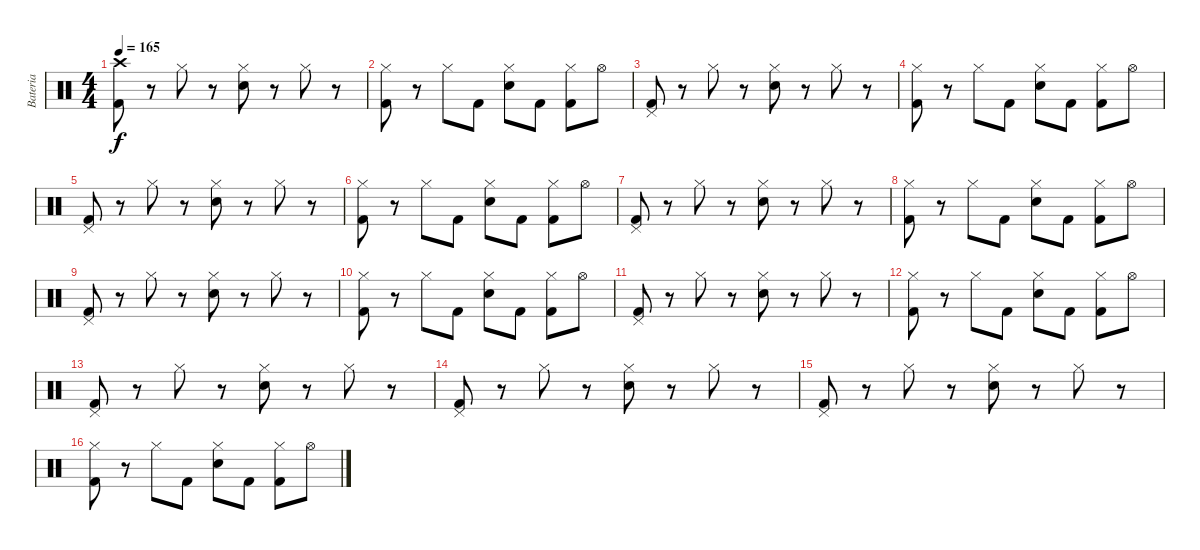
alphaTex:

\track ("Bateria" "Bateria") {instrument percussion}
\staff {score}
\articulation defaults
\ts (4 4)
\tempo 165
\clef neutral
\ks c
("Crash high (hit)" "Kick (hit) 2").8{dy f} r.8 "Hi-Hat (closed)".8 r.8 ("Hi-Hat (closed)" "Snare (hit) 2").8 r.8 "Hi-Hat (closed)".8 r.8 |
("Hi-Hat (closed)" "Kick (hit) 2").8 r.8 "Hi-Hat (closed)".8 "Kick (hit) 2".8 ("Hi-Hat (closed)" "Snare (hit) 2").8 "Kick (hit) 2".8 ("Hi-Hat (closed)" "Kick (hit) 2").8 "Hi-Hat (open)".8 |
("Pedal Hi-Hat (hit)" "Kick (hit) 2").8 r.8 "Hi-Hat (closed)".8 r.8 ("Hi-Hat (closed)" "Snare (hit) 2").8 r.8 "Hi-Hat (closed)".8 r.8 |
("Hi-Hat (closed)" "Kick (hit) 2").8 r.8 "Hi-Hat (closed)".8 "Kick (hit) 2".8 ("Hi-Hat (closed)" "Snare (hit) 2").8 "Kick (hit) 2".8 ("Hi-Hat (closed)" "Kick (hit) 2").8 "Hi-Hat (open)".8 |
("Pedal Hi-Hat (hit)" "Kick (hit) 2").8 r.8 "Hi-Hat (closed)".8 r.8 ("Hi-Hat (closed)" "Snare (hit) 2").8 r.8 "Hi-Hat (closed)".8 r.8 |
("Hi-Hat (closed)" "Kick (hit) 2").8 r.8 "Hi-Hat (closed)".8 "Kick (hit) 2".8 ("Hi-Hat (closed)" "Snare (hit) 2").8 "Kick (hit) 2".8 ("Hi-Hat (closed)" "Kick (hit) 2").8 "Hi-Hat (open)".8 |
("Pedal Hi-Hat (hit)" "Kick (hit) 2").8 r.8 "Hi-Hat (closed)".8 r.8 ("Hi-Hat (closed)" "Snare (hit) 2").8 r.8 "Hi-Hat (closed)".8 r.8 |
("Hi-Hat (closed)" "Kick (hit) 2").8 r.8 "Hi-Hat (closed)".8 "Kick (hit) 2".8 ("Hi-Hat (closed)" "Snare (hit) 2").8 "Kick (hit) 2".8 ("Hi-Hat (closed)" "Kick (hit) 2").8 "Hi-Hat (open)".8 |
("Pedal Hi-Hat (hit)" "Kick (hit) 2").8 r.8 "Hi-Hat (closed)".8 r.8 ("Hi-Hat (closed)" "Snare (hit) 2").8 r.8 "Hi-Hat (closed)".8 r.8 |
("Hi-Hat (closed)" "Kick (hit) 2").8 r.8 "Hi-Hat (closed)".8 "Kick (hit) 2".8 ("Hi-Hat (closed)" "Snare (hit) 2").8 "Kick (hit) 2".8 ("Hi-Hat (closed)" "Kick (hit) 2").8 "Hi-Hat (open)".8 |
("Pedal Hi-Hat (hit)" "Kick (hit) 2").8 r.8 "Hi-Hat (closed)".8 r.8 ("Hi-Hat (closed)" "Snare (hit) 2").8 r.8 "Hi-Hat (closed)".8 r.8 |
("Hi-Hat (closed)" "Kick (hit) 2").8 r.8 "Hi-Hat (closed)".8 "Kick (hit) 2".8 ("Hi-Hat (closed)" "Snare (hit) 2").8 "Kick (hit) 2".8 ("Hi-Hat (closed)" "Kick (hit) 2").8 "Hi-Hat (open)".8 |
("Pedal Hi-Hat (hit)" "Kick (hit) 2").8 r.8 "Hi-Hat (closed)".8 r.8 ("Hi-Hat (closed)" "Snare (hit) 2").8 r.8 "Hi-Hat (closed)".8 r.8 |
("Pedal Hi-Hat (hit)" "Kick (hit) 2").8 r.8 "Hi-Hat (closed)".8 r.8 ("Hi-Hat (closed)" "Snare (hit) 2").8 r.8 "Hi-Hat (closed)".8 r.8 |
("Pedal Hi-Hat (hit)" "Kick (hit) 2").8 r.8 "Hi-Hat (closed)".8 r.8 ("Hi-Hat (closed)" "Snare (hit) 2").8 r.8 "Hi-Hat (closed)".8 r.8 |
("Hi-Hat (closed)" "Kick (hit) 2").8 r.8 "Hi-Hat (closed)".8 "Kick (hit) 2".8 ("Hi-Hat (closed)" "Snare (hit) 2").8 "Kick (hit) 2".8 ("Hi-Hat (closed)" "Kick (hit) 2").8 "Hi-Hat (open)".8
